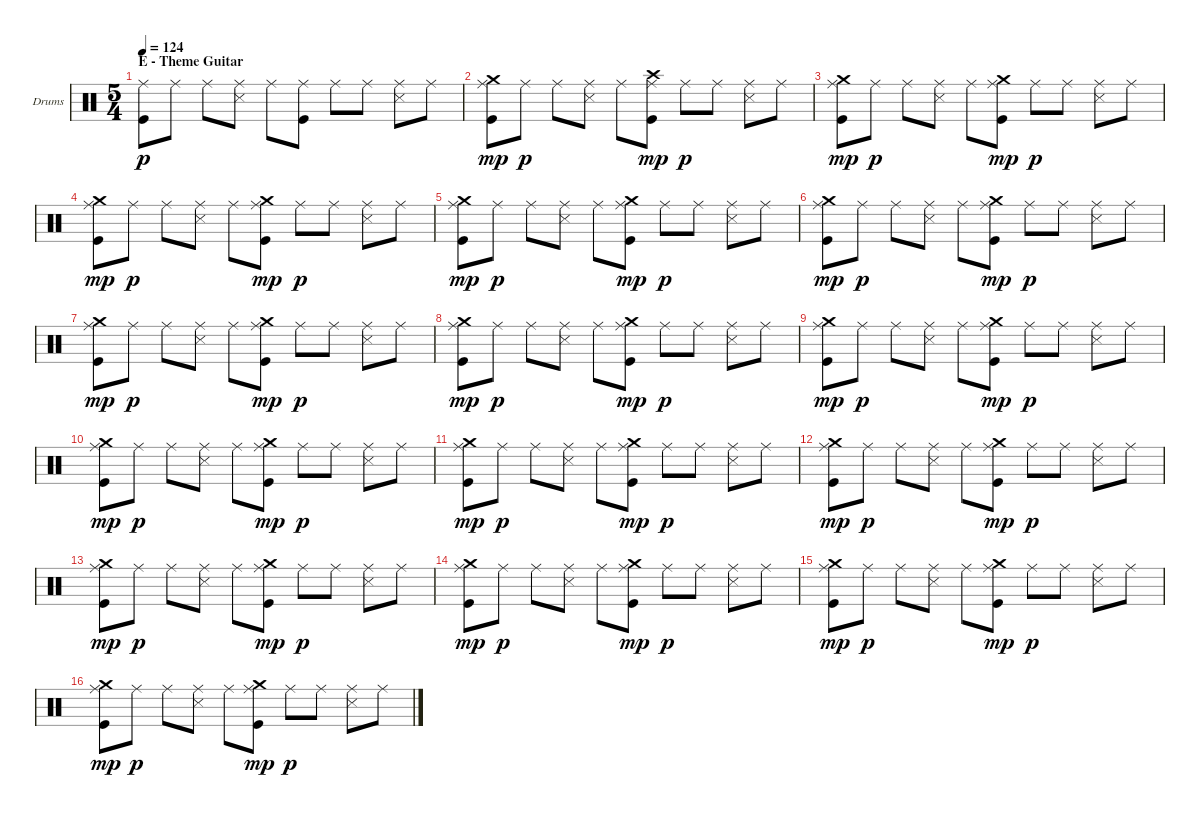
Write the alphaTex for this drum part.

\bracketExtendMode groupsimilarinstruments
\firstSystemTrackNameOrientation horizontal
\otherSystemsTrackNameOrientation horizontal
\track ("Drumkit" "Drums") {instrument percussion}
\staff {score}
\articulation defaults
\ts (5 4)
\section ("" "E - Theme Guitar")
\tempo 124
\clef neutral
\ks aminor
("Ride (middle)" "Kick (hit)").8{dy p} "Ride (middle)".8 "Ride (middle)".8 ("Ride (middle)" "Snare (side stick) 3").8 "Ride (middle)".8 ("Ride (middle)" "Kick (hit)").8 "Ride (middle)".8 "Ride (middle)".8 ("Ride (middle)" "Snare (side stick) 3").8 "Ride (middle)".8 |
("Crash medium (hit)" "Ride (middle)" "Kick (hit)").8{dy mp} "Ride (middle)".8{dy p} "Ride (middle)".8 ("Ride (middle)" "Snare (side stick) 3").8 "Ride (middle)".8 ("Crash high (hit)" "Ride (middle)" "Kick (hit)").8{dy mp} "Ride (middle)".8{dy p} "Ride (middle)".8 ("Ride (middle)" "Snare (side stick) 3").8 "Ride (middle)".8 |
("Crash medium (hit)" "Ride (middle)" "Kick (hit)").8{dy mp} "Ride (middle)".8{dy p} "Ride (middle)".8 ("Ride (middle)" "Snare (side stick) 3").8 "Ride (middle)".8 ("Crash medium (hit)" "Ride (middle)" "Kick (hit)").8{dy mp} "Ride (middle)".8{dy p} "Ride (middle)".8 ("Ride (middle)" "Snare (side stick) 3").8 "Ride (middle)".8 |
("Crash medium (hit)" "Ride (middle)" "Kick (hit)").8{dy mp} "Ride (middle)".8{dy p} "Ride (middle)".8 ("Ride (middle)" "Snare (side stick) 3").8 "Ride (middle)".8 ("Crash medium (hit)" "Ride (middle)" "Kick (hit)").8{dy mp} "Ride (middle)".8{dy p} "Ride (middle)".8 ("Ride (middle)" "Snare (side stick) 3").8 "Ride (middle)".8 |
("Crash medium (hit)" "Ride (middle)" "Kick (hit)").8{dy mp} "Ride (middle)".8{dy p} "Ride (middle)".8 ("Ride (middle)" "Snare (side stick) 3").8 "Ride (middle)".8 ("Crash medium (hit)" "Ride (middle)" "Kick (hit)").8{dy mp} "Ride (middle)".8{dy p} "Ride (middle)".8 ("Ride (middle)" "Snare (side stick) 3").8 "Ride (middle)".8 |
("Crash medium (hit)" "Ride (middle)" "Kick (hit)").8{dy mp} "Ride (middle)".8{dy p} "Ride (middle)".8 ("Ride (middle)" "Snare (side stick) 3").8 "Ride (middle)".8 ("Crash medium (hit)" "Ride (middle)" "Kick (hit)").8{dy mp} "Ride (middle)".8{dy p} "Ride (middle)".8 ("Ride (middle)" "Snare (side stick) 3").8 "Ride (middle)".8 |
("Crash medium (hit)" "Ride (middle)" "Kick (hit)").8{dy mp} "Ride (middle)".8{dy p} "Ride (middle)".8 ("Ride (middle)" "Snare (side stick) 3").8 "Ride (middle)".8 ("Crash medium (hit)" "Ride (middle)" "Kick (hit)").8{dy mp} "Ride (middle)".8{dy p} "Ride (middle)".8 ("Ride (middle)" "Snare (side stick) 3").8 "Ride (middle)".8 |
("Crash medium (hit)" "Ride (middle)" "Kick (hit)").8{dy mp} "Ride (middle)".8{dy p} "Ride (middle)".8 ("Ride (middle)" "Snare (side stick) 3").8 "Ride (middle)".8 ("Crash medium (hit)" "Ride (middle)" "Kick (hit)").8{dy mp} "Ride (middle)".8{dy p} "Ride (middle)".8 ("Ride (middle)" "Snare (side stick) 3").8 "Ride (middle)".8 |
("Crash medium (hit)" "Ride (middle)" "Kick (hit)").8{dy mp} "Ride (middle)".8{dy p} "Ride (middle)".8 ("Ride (middle)" "Snare (side stick) 3").8 "Ride (middle)".8 ("Crash medium (hit)" "Ride (middle)" "Kick (hit)").8{dy mp} "Ride (middle)".8{dy p} "Ride (middle)".8 ("Ride (middle)" "Snare (side stick) 3").8 "Ride (middle)".8 |
("Crash medium (hit)" "Ride (middle)" "Kick (hit)").8{dy mp} "Ride (middle)".8{dy p} "Ride (middle)".8 ("Ride (middle)" "Snare (side stick) 3").8 "Ride (middle)".8 ("Crash medium (hit)" "Ride (middle)" "Kick (hit)").8{dy mp} "Ride (middle)".8{dy p} "Ride (middle)".8 ("Ride (middle)" "Snare (side stick) 3").8 "Ride (middle)".8 |
("Crash medium (hit)" "Ride (middle)" "Kick (hit)").8{dy mp} "Ride (middle)".8{dy p} "Ride (middle)".8 ("Ride (middle)" "Snare (side stick) 3").8 "Ride (middle)".8 ("Crash medium (hit)" "Ride (middle)" "Kick (hit)").8{dy mp} "Ride (middle)".8{dy p} "Ride (middle)".8 ("Ride (middle)" "Snare (side stick) 3").8 "Ride (middle)".8 |
("Crash medium (hit)" "Ride (middle)" "Kick (hit)").8{dy mp} "Ride (middle)".8{dy p} "Ride (middle)".8 ("Ride (middle)" "Snare (side stick) 3").8 "Ride (middle)".8 ("Crash medium (hit)" "Ride (middle)" "Kick (hit)").8{dy mp} "Ride (middle)".8{dy p} "Ride (middle)".8 ("Ride (middle)" "Snare (side stick) 3").8 "Ride (middle)".8 |
("Crash medium (hit)" "Ride (middle)" "Kick (hit)").8{dy mp} "Ride (middle)".8{dy p} "Ride (middle)".8 ("Ride (middle)" "Snare (side stick) 3").8 "Ride (middle)".8 ("Crash medium (hit)" "Ride (middle)" "Kick (hit)").8{dy mp} "Ride (middle)".8{dy p} "Ride (middle)".8 ("Ride (middle)" "Snare (side stick) 3").8 "Ride (middle)".8 |
("Crash medium (hit)" "Ride (middle)" "Kick (hit)").8{dy mp} "Ride (middle)".8{dy p} "Ride (middle)".8 ("Ride (middle)" "Snare (side stick) 3").8 "Ride (middle)".8 ("Crash medium (hit)" "Ride (middle)" "Kick (hit)").8{dy mp} "Ride (middle)".8{dy p} "Ride (middle)".8 ("Ride (middle)" "Snare (side stick) 3").8 "Ride (middle)".8 |
("Crash medium (hit)" "Ride (middle)" "Kick (hit)").8{dy mp} "Ride (middle)".8{dy p} "Ride (middle)".8 ("Ride (middle)" "Snare (side stick) 3").8 "Ride (middle)".8 ("Crash medium (hit)" "Ride (middle)" "Kick (hit)").8{dy mp} "Ride (middle)".8{dy p} "Ride (middle)".8 ("Ride (middle)" "Snare (side stick) 3").8 "Ride (middle)".8 |
("Crash medium (hit)" "Ride (middle)" "Kick (hit)").8{dy mp} "Ride (middle)".8{dy p} "Ride (middle)".8 ("Ride (middle)" "Snare (side stick) 3").8 "Ride (middle)".8 ("Crash medium (hit)" "Ride (middle)" "Kick (hit)").8{dy mp} "Ride (middle)".8{dy p} "Ride (middle)".8 ("Ride (middle)" "Snare (side stick) 3").8 "Ride (middle)".8
